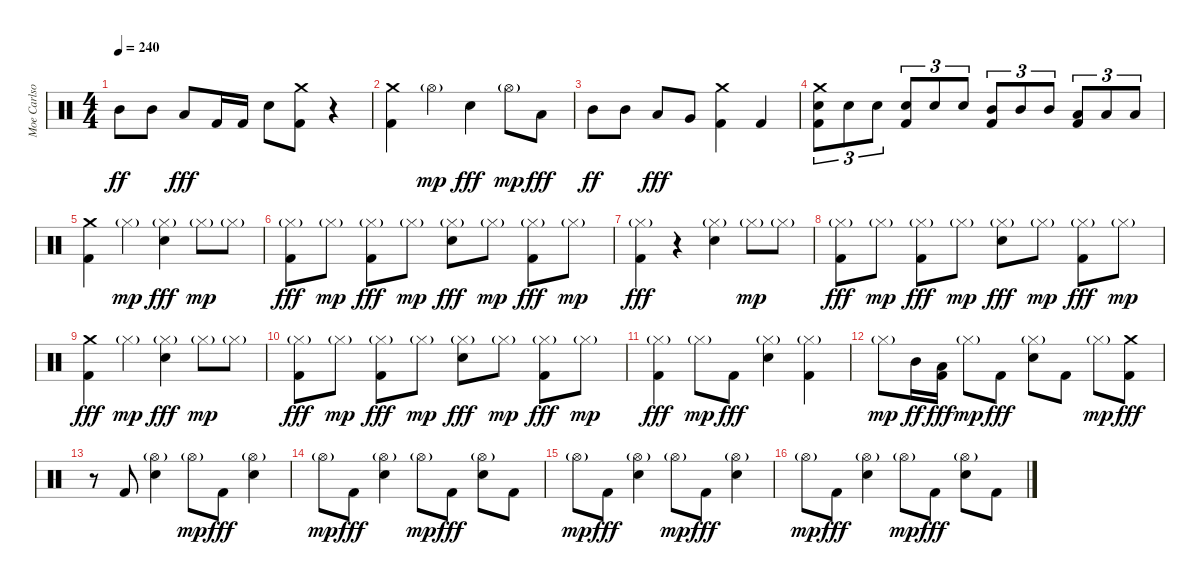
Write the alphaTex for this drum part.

\track ("Moe Carlson" "Moe Carlso") {instrument percussion}
\staff {score}
\articulation defaults
\ts (4 4)
\tempo 240
\clef neutral
\ks c "Mid Tom (hit)".8{dy ff} "Mid Tom (hit)".8 "Low Tom (hit)".8{dy fff} "Kick (hit) 2".16 "Kick (hit) 2".16 "Electric Snare (hit)".8
("Crash medium (hit)" "Kick (hit) 2").8 r.4 |
("Crash medium (hit)" "Kick (hit) 2").4 "Hi-Hat (open)"{g}.4{dy mp} "Electric Snare (hit)".4{dy fff} "Hi-Hat (open)"{g}.8{dy mp} "Low Tom (hit)".8{dy fff} |
"Mid Tom (hit)".8{dy ff} "Mid Tom (hit)".8 "Low Tom (hit)".8{dy fff} "Very Low Tom (hit)".8 ("Crash medium (hit)" "Kick (hit) 2").4 "Kick (hit) 2".4 |
("Crash medium (hit)" "Electric Snare (hit)" "Kick (hit) 2").8{tu (3 2)} "Electric Snare (hit)".8{tu (3 2)} "Electric Snare (hit)".8{tu (3 2)} ("Electric Snare (hit)" "Kick (hit) 2").8{tu (3 2)} "Electric Snare (hit)".8{tu (3 2)} "Electric Snare (hit)".8{tu (3 2)} ("Mid Tom (hit)" "Kick (hit) 2").8{tu (3 2)} "Mid Tom (hit)".8{tu (3 2)} "Mid Tom (hit)".8{tu (3 2)} ("Low Tom (hit)" "Kick (hit) 2").8{tu (3 2)} "Low Tom (hit)".8{tu (3 2)} "Low Tom (hit)".8{tu (3 2)} |
("Crash medium (hit)" "Kick (hit) 2").4 "Hi-Hat (closed)"{g}.4{dy mp} ("Hi-Hat (closed)"{g} "Electric Snare (hit)").4{dy fff} "Hi-Hat (closed)"{g}.8{dy mp} "Hi-Hat (closed)"{g}.8 |
("Hi-Hat (closed)"{g} "Kick (hit) 2").8{dy fff} "Hi-Hat (closed)"{g}.8{dy mp} ("Hi-Hat (closed)"{g} "Kick (hit) 2").8{dy fff} "Hi-Hat (closed)"{g}.8{dy mp} ("Hi-Hat (closed)"{g} "Electric Snare (hit)").8{dy fff} "Hi-Hat (closed)"{g}.8{dy mp} ("Hi-Hat (closed)"{g} "Kick (hit) 2").8{dy fff} "Hi-Hat (closed)"{g}.8{dy mp} |
("Hi-Hat (closed)"{g} "Kick (hit) 2").4{dy fff} r.4 ("Hi-Hat (closed)"{g} "Electric Snare (hit)").4 "Hi-Hat (closed)"{g}.8{dy mp} "Hi-Hat (closed)"{g}.8 |
("Hi-Hat (closed)"{g} "Kick (hit) 2").8{dy fff} "Hi-Hat (closed)"{g}.8{dy mp} ("Hi-Hat (closed)"{g} "Kick (hit) 2").8{dy fff} "Hi-Hat (closed)"{g}.8{dy mp} ("Hi-Hat (closed)"{g} "Electric Snare (hit)").8{dy fff} "Hi-Hat (closed)"{g}.8{dy mp} ("Hi-Hat (closed)"{g} "Kick (hit) 2").8{dy fff} "Hi-Hat (closed)"{g}.8{dy mp} |
("Crash medium (hit)" "Kick (hit) 2").4{dy fff} "Hi-Hat (closed)"{g}.4{dy mp} ("Hi-Hat (closed)"{g} "Electric Snare (hit)").4{dy fff} "Hi-Hat (closed)"{g}.8{dy mp} "Hi-Hat (closed)"{g}.8 |
("Hi-Hat (closed)"{g} "Kick (hit) 2").8{dy fff} "Hi-Hat (closed)"{g}.8{dy mp} ("Hi-Hat (closed)"{g} "Kick (hit) 2").8{dy fff} "Hi-Hat (closed)"{g}.8{dy mp} ("Hi-Hat (closed)"{g} "Electric Snare (hit)").8{dy fff} "Hi-Hat (closed)"{g}.8{dy mp} ("Hi-Hat (closed)"{g} "Kick (hit) 2").8{dy fff} "Hi-Hat (closed)"{g}.8{dy mp} |
("Hi-Hat (closed)"{g} "Kick (hit) 2").4{dy fff} "Hi-Hat (closed)"{g}.8{dy mp} "Kick (hit) 2".8{dy fff} ("Hi-Hat (closed)"{g} "Electric Snare (hit)").4 ("Hi-Hat (closed)"{g} "Kick (hit) 2").4 |
"Hi-Hat (closed)"{g}.8{dy mp} "Mid Tom (hit)".16{dy ff} ("Low Tom (hit)" "Kick (hit) 2").16{dy fff} "Hi-Hat (closed)"{g}.8{dy mp} "Kick (hit) 2".8{dy fff} ("Hi-Hat (closed)"{g} "Electric Snare (hit)").8 "Kick (hit) 2".8 "Hi-Hat (closed)"{g}.8{dy mp} ("Crash medium (hit)" "Kick (hit) 2").8{dy fff} |
r.8 "Kick (hit) 2".8 ("Hi-Hat (open)"{g} "Electric Snare (hit)").4 "Hi-Hat (open)"{g}.8{dy mp} "Kick (hit) 2".8{dy fff} ("Hi-Hat (open)"{g} "Electric Snare (hit)").4 |
"Hi-Hat (open)"{g}.8{dy mp} "Kick (hit) 2".8{dy fff} ("Hi-Hat (open)"{g} "Electric Snare (hit)").4 "Hi-Hat (open)"{g}.8{dy mp} "Kick (hit) 2".8{dy fff} ("Hi-Hat (open)"{g} "Electric Snare (hit)").8 "Kick (hit) 2".8 |
"Hi-Hat (open)"{g}.8{dy mp} "Kick (hit) 2".8{dy fff} ("Hi-Hat (open)"{g} "Electric Snare (hit)").4 "Hi-Hat (open)"{g}.8{dy mp} "Kick (hit) 2".8{dy fff} ("Hi-Hat (open)"{g} "Electric Snare (hit)").4 |
"Hi-Hat (open)"{g}.8{dy mp} "Kick (hit) 2".8{dy fff} ("Hi-Hat (open)"{g} "Electric Snare (hit)").4 "Hi-Hat (open)"{g}.8{dy mp} "Kick (hit) 2".8{dy fff} ("Hi-Hat (open)"{g} "Electric Snare (hit)").8 "Kick (hit) 2".8
